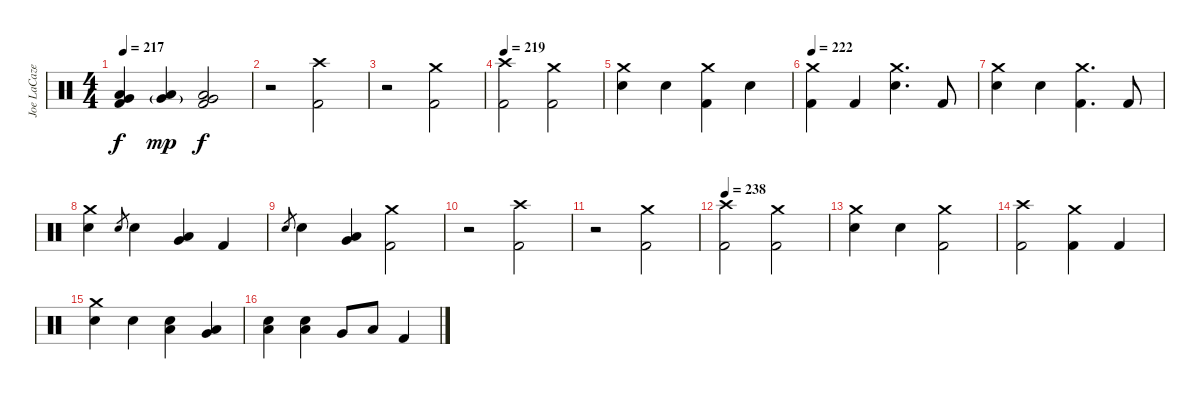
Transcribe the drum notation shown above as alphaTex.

\track ("Joe LaCaze" "Joe LaCaze") {instrument percussion}
\staff {score}
\articulation defaults
\ts (4 4)
\tempo 217
\clef neutral
\ks c
("Very Low Tom (hit)" "Low Floor Tom (hit)" "Kick (hit) 2").4{dy f} ("Very Low Tom (hit)"{g} "Low Floor Tom (hit)").4{dy mp} ("Very Low Tom (hit)" "Low Floor Tom (hit)" "Kick (hit) 2").2{dy f} |
r.2 ("Crash high (hit)" "Kick (hit) 2").2 |
r.2 ("Crash medium (hit)" "Kick (hit) 2").2 |
\tempo 219
("Crash high (hit)" "Kick (hit) 2").2 ("Crash medium (hit)" "Kick (hit) 2").2 |
("Crash medium (hit)" "Electric Snare (hit)").4 "Electric Snare (hit)".4 ("Crash medium (hit)" "Kick (hit) 2").4 "Electric Snare (hit)".4 |
\tempo 222
("Crash medium (hit)" "Kick (hit) 2").4 "Kick (hit) 2".4 ("Crash medium (hit)" "Electric Snare (hit)").4{d} "Kick (hit) 2".8 |
("Crash medium (hit)" "Electric Snare (hit)").4 "Electric Snare (hit)".4 ("Crash medium (hit)" "Kick (hit) 2").4{d} "Kick (hit) 2".8 |
("Crash medium (hit)" "Electric Snare (hit)").4 "Electric Snare (hit)".8{gr} "Electric Snare (hit)".4 ("Very Low Tom (hit)" "Low Floor Tom (hit)").4 "Kick (hit) 2".4 |
"Electric Snare (hit)".8{gr} "Electric Snare (hit)".4 ("Very Low Tom (hit)" "Low Floor Tom (hit)").4 ("Crash medium (hit)" "Kick (hit) 2").2 |
r.2 ("Crash high (hit)" "Kick (hit) 2").2 |
r.2 ("Crash medium (hit)" "Kick (hit) 2").2 |
\tempo 238
("Crash high (hit)" "Kick (hit) 2").2 ("Crash medium (hit)" "Kick (hit) 2").2 |
("Crash medium (hit)" "Electric Snare (hit)").4 "Electric Snare (hit)".4 ("Crash medium (hit)" "Kick (hit) 2").2 |
("Crash high (hit)" "Kick (hit) 2").2 ("Crash medium (hit)" "Kick (hit) 2").4 "Kick (hit) 2".4 |
("Crash medium (hit)" "Electric Snare (hit)").4 "Electric Snare (hit)".4 ("Electric Snare (hit)" "Low Floor Tom (hit)").4 ("Very Low Tom (hit)" "Low Floor Tom (hit)").4 |
("Electric Snare (hit)" "Low Floor Tom (hit)").4 ("Electric Snare (hit)" "Low Floor Tom (hit)").4 "Very Low Tom (hit)".8 "Low Floor Tom (hit)".8 "Kick (hit) 2".4
